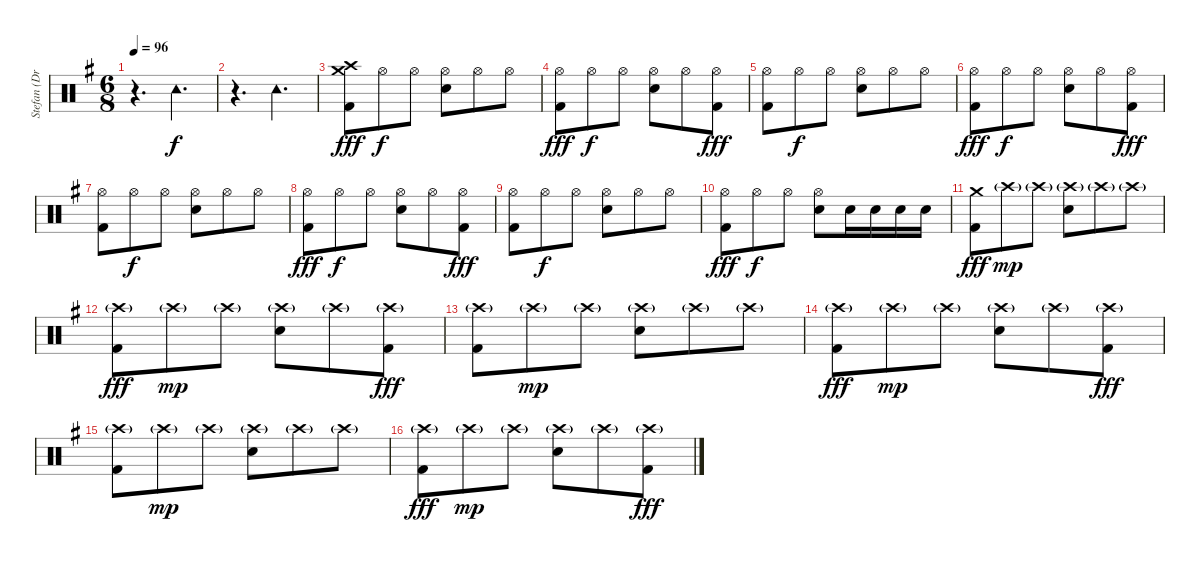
\track ("Stefan (Drums)" "Stefan (Dr") {instrument percussion}
\staff {score}
\articulation defaults
\ts (6 8)
\tempo 96
\clef neutral
\ks g
r.4{d dy f} "Tambourine (hit)".4{d} |
r.4{d} "Tambourine (hit)".4{d} |
("Crash high (hit)" "Crash medium (hit)" "Kick (hit) 2").8{dy fff} "Hi-Hat (open)".8{dy f} "Hi-Hat (open)".8 ("Hi-Hat (open)" "Snare (hit) 2").8 "Hi-Hat (open)".8 "Hi-Hat (open)".8 |
("Hi-Hat (open)" "Kick (hit) 2").8{dy fff} "Hi-Hat (open)".8{dy f} "Hi-Hat (open)".8 ("Hi-Hat (open)" "Snare (hit) 2").8 "Hi-Hat (open)".8 ("Hi-Hat (open)" "Kick (hit) 2").8{dy fff} |
("Hi-Hat (open)" "Kick (hit) 2").8 "Hi-Hat (open)".8{dy f} "Hi-Hat (open)".8 ("Hi-Hat (open)" "Snare (hit) 2").8 "Hi-Hat (open)".8 "Hi-Hat (open)".8 |
("Hi-Hat (open)" "Kick (hit) 2").8{dy fff} "Hi-Hat (open)".8{dy f} "Hi-Hat (open)".8 ("Hi-Hat (open)" "Snare (hit) 2").8 "Hi-Hat (open)".8 ("Hi-Hat (open)" "Kick (hit) 2").8{dy fff} |
("Hi-Hat (open)" "Kick (hit) 2").8 "Hi-Hat (open)".8{dy f} "Hi-Hat (open)".8 ("Hi-Hat (open)" "Snare (hit) 2").8 "Hi-Hat (open)".8 "Hi-Hat (open)".8 |
("Hi-Hat (open)" "Kick (hit) 2").8{dy fff} "Hi-Hat (open)".8{dy f} "Hi-Hat (open)".8 ("Hi-Hat (open)" "Snare (hit) 2").8 "Hi-Hat (open)".8 ("Hi-Hat (open)" "Kick (hit) 2").8{dy fff} |
("Hi-Hat (open)" "Kick (hit) 2").8 "Hi-Hat (open)".8{dy f} "Hi-Hat (open)".8 ("Hi-Hat (open)" "Snare (hit) 2").8 "Hi-Hat (open)".8 "Hi-Hat (open)".8 |
("Hi-Hat (open)" "Kick (hit) 2").8{dy fff} "Hi-Hat (open)".8{dy f} "Hi-Hat (open)".8 ("Hi-Hat (open)" "Snare (hit) 2").8 "Snare (hit) 2".16 "Snare (hit) 2".16 "Snare (hit) 2".16 "Snare (hit) 2".16 |
("Crash medium (hit)" "Kick (hit) 2").8{dy fff} "Crash high (hit)"{g}.8{dy mp} "Crash high (hit)"{g}.8 ("Crash high (hit)"{g} "Snare (hit) 2").8 "Crash high (hit)"{g}.8 "Crash high (hit)"{g}.8 |
("Crash high (hit)"{g} "Kick (hit) 2").8{dy fff} "Crash high (hit)"{g}.8{dy mp} "Crash high (hit)"{g}.8 ("Crash high (hit)"{g} "Snare (hit) 2").8 "Crash high (hit)"{g}.8 ("Crash high (hit)"{g} "Kick (hit) 2").8{dy fff} |
("Crash high (hit)"{g} "Kick (hit) 2").8 "Crash high (hit)"{g}.8{dy mp} "Crash high (hit)"{g}.8 ("Crash high (hit)"{g} "Snare (hit) 2").8 "Crash high (hit)"{g}.8 "Crash high (hit)"{g}.8 |
("Crash high (hit)"{g} "Kick (hit) 2").8{dy fff} "Crash high (hit)"{g}.8{dy mp} "Crash high (hit)"{g}.8 ("Crash high (hit)"{g} "Snare (hit) 2").8 "Crash high (hit)"{g}.8 ("Crash high (hit)"{g} "Kick (hit) 2").8{dy fff} |
("Crash high (hit)"{g} "Kick (hit) 2").8 "Crash high (hit)"{g}.8{dy mp} "Crash high (hit)"{g}.8 ("Crash high (hit)"{g} "Snare (hit) 2").8 "Crash high (hit)"{g}.8 "Crash high (hit)"{g}.8 |
("Crash high (hit)"{g} "Kick (hit) 2").8{dy fff} "Crash high (hit)"{g}.8{dy mp} "Crash high (hit)"{g}.8 ("Crash high (hit)"{g} "Snare (hit) 2").8 "Crash high (hit)"{g}.8 ("Crash high (hit)"{g} "Kick (hit) 2").8{dy fff}
